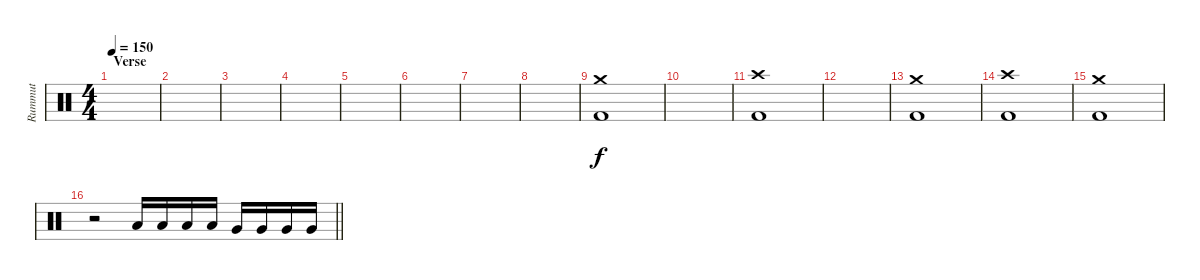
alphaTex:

\track ("Rummut" "Rummut") {instrument percussion}
\staff {score}
\articulation defaults
\ts (4 4)
\section ("" "Verse")
\tempo 150
\clef neutral
\ks c
|
|
|
|
|
|
|
|
("Crash medium (hit)" "Kick (hit) 2").1 |
|
("Crash high (hit)" "Kick (hit) 2").1 |
|
("Crash medium (hit)" "Kick (hit) 2").1 |
("Crash high (hit)" "Kick (hit) 2").1 |
("Crash medium (hit)" "Kick (hit) 2").1 |
\barLineRight lightlight
r.2 "Low Tom (hit)".16 "Low Tom (hit)".16 "Low Tom (hit)".16 "Low Tom (hit)".16 "Very Low Tom (hit)".16 "Very Low Tom (hit)".16 "Very Low Tom (hit)".16 "Very Low Tom (hit)".16
